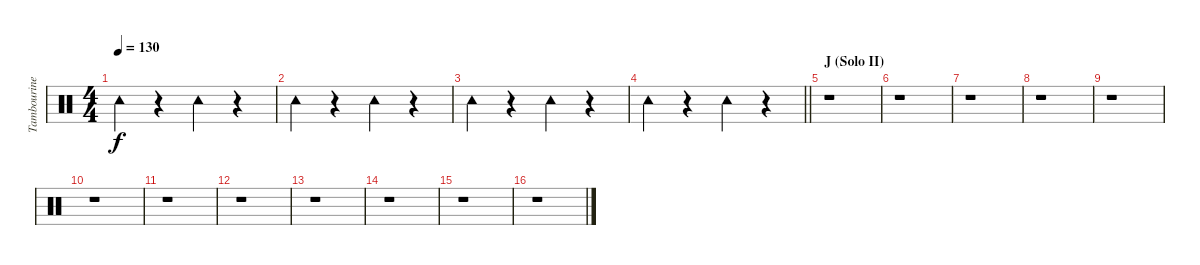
\track ("Tambourine" "Tambourine") {instrument percussion}
\staff {score}
\articulation defaults
\ts (4 4)
\tempo 130
\clef neutral
\ks c "Tambourine (hit)".4{dy f}
r.4 "Tambourine (hit)".4 r.4 |
"Tambourine (hit)".4 r.4 "Tambourine (hit)".4 r.4 |
"Tambourine (hit)".4 r.4 "Tambourine (hit)".4 r.4 |
\barLineRight lightlight "Tambourine (hit)".4
r.4 "Tambourine (hit)".4 r.4 |
\section ("" "J (Solo II)")
r.1 |
r.1 |
r.1 |
r.1 |
r.1 |
r.1 |
r.1 |
r.1 |
r.1 |
r.1 |
r.1 |
r.1
